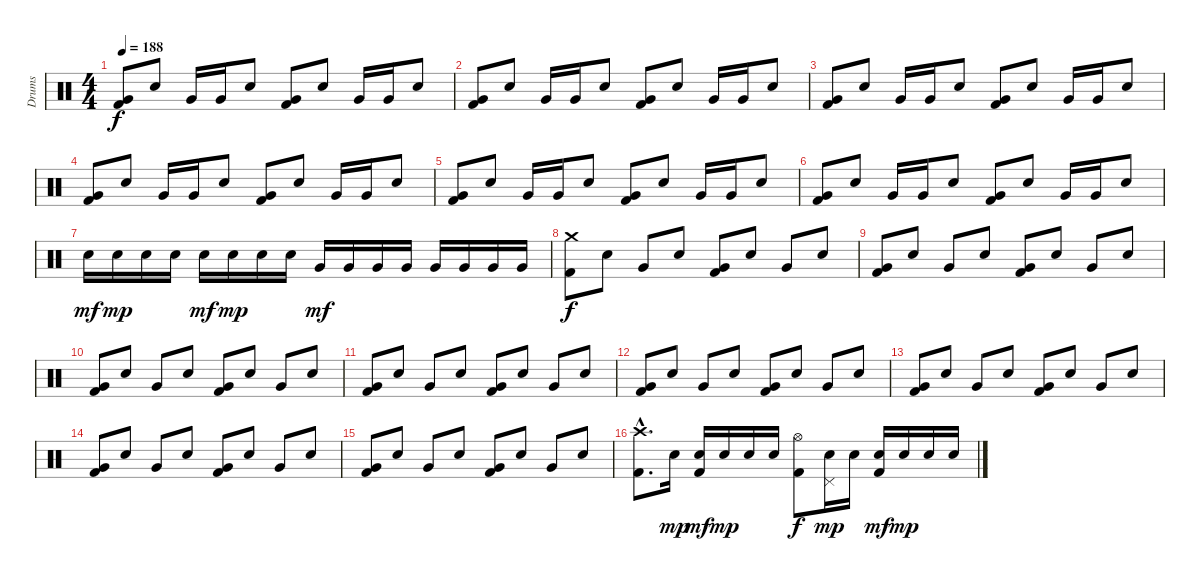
\track ("Drums" "Drums") {instrument percussion}
\staff {score}
\articulation defaults
\ts (4 4)
\tempo 188
\clef neutral
\ks c
("Very Low Tom (hit)" "Kick (hit) 2").8{dy f} "Electric Snare (hit)".8 "Very Low Tom (hit)".16 "Very Low Tom (hit)".16 "Electric Snare (hit)".8 ("Very Low Tom (hit)" "Kick (hit) 2").8 "Electric Snare (hit)".8 "Very Low Tom (hit)".16 "Very Low Tom (hit)".16 "Electric Snare (hit)".8 |
("Very Low Tom (hit)" "Kick (hit) 2").8 "Electric Snare (hit)".8 "Very Low Tom (hit)".16 "Very Low Tom (hit)".16 "Electric Snare (hit)".8 ("Very Low Tom (hit)" "Kick (hit) 2").8 "Electric Snare (hit)".8 "Very Low Tom (hit)".16 "Very Low Tom (hit)".16 "Electric Snare (hit)".8 |
("Very Low Tom (hit)" "Kick (hit) 2").8 "Electric Snare (hit)".8 "Very Low Tom (hit)".16 "Very Low Tom (hit)".16 "Electric Snare (hit)".8 ("Very Low Tom (hit)" "Kick (hit) 2").8 "Electric Snare (hit)".8 "Very Low Tom (hit)".16 "Very Low Tom (hit)".16 "Electric Snare (hit)".8 |
("Very Low Tom (hit)" "Kick (hit) 2").8 "Electric Snare (hit)".8 "Very Low Tom (hit)".16 "Very Low Tom (hit)".16 "Electric Snare (hit)".8 ("Very Low Tom (hit)" "Kick (hit) 2").8 "Electric Snare (hit)".8 "Very Low Tom (hit)".16 "Very Low Tom (hit)".16 "Electric Snare (hit)".8 |
("Very Low Tom (hit)" "Kick (hit) 2").8 "Electric Snare (hit)".8 "Very Low Tom (hit)".16 "Very Low Tom (hit)".16 "Electric Snare (hit)".8 ("Very Low Tom (hit)" "Kick (hit) 2").8 "Electric Snare (hit)".8 "Very Low Tom (hit)".16 "Very Low Tom (hit)".16 "Electric Snare (hit)".8 |
("Very Low Tom (hit)" "Kick (hit) 2").8 "Electric Snare (hit)".8 "Very Low Tom (hit)".16 "Very Low Tom (hit)".16 "Electric Snare (hit)".8 ("Very Low Tom (hit)" "Kick (hit) 2").8 "Electric Snare (hit)".8 "Very Low Tom (hit)".16 "Very Low Tom (hit)".16 "Electric Snare (hit)".8 |
"Electric Snare (hit)".16{dy mf} "Electric Snare (hit)".16{dy mp} "Electric Snare (hit)".16 "Electric Snare (hit)".16 "Electric Snare (hit)".16{dy mf} "Electric Snare (hit)".16{dy mp} "Electric Snare (hit)".16 "Electric Snare (hit)".16 "Very Low Tom (hit)".16{dy mf} "Very Low Tom (hit)".16 "Very Low Tom (hit)".16 "Very Low Tom (hit)".16 "Very Low Tom (hit)".16 "Very Low Tom (hit)".16 "Very Low Tom (hit)".16 "Very Low Tom (hit)".16 |
("Crash medium (hit)" "Kick (hit) 2").8{dy f} "Electric Snare (hit)".8 "Very Low Tom (hit)".8 "Electric Snare (hit)".8 ("Very Low Tom (hit)" "Kick (hit) 2").8 "Electric Snare (hit)".8 "Very Low Tom (hit)".8 "Electric Snare (hit)".8 |
("Very Low Tom (hit)" "Kick (hit) 2").8 "Electric Snare (hit)".8 "Very Low Tom (hit)".8 "Electric Snare (hit)".8 ("Very Low Tom (hit)" "Kick (hit) 2").8 "Electric Snare (hit)".8 "Very Low Tom (hit)".8 "Electric Snare (hit)".8 |
("Very Low Tom (hit)" "Kick (hit) 2").8 "Electric Snare (hit)".8 "Very Low Tom (hit)".8 "Electric Snare (hit)".8 ("Very Low Tom (hit)" "Kick (hit) 2").8 "Electric Snare (hit)".8 "Very Low Tom (hit)".8 "Electric Snare (hit)".8 |
("Very Low Tom (hit)" "Kick (hit) 2").8 "Electric Snare (hit)".8 "Very Low Tom (hit)".8 "Electric Snare (hit)".8 ("Very Low Tom (hit)" "Kick (hit) 2").8 "Electric Snare (hit)".8 "Very Low Tom (hit)".8 "Electric Snare (hit)".8 |
("Very Low Tom (hit)" "Kick (hit) 2").8 "Electric Snare (hit)".8 "Very Low Tom (hit)".8 "Electric Snare (hit)".8 ("Very Low Tom (hit)" "Kick (hit) 2").8 "Electric Snare (hit)".8 "Very Low Tom (hit)".8 "Electric Snare (hit)".8 |
("Very Low Tom (hit)" "Kick (hit) 2").8 "Electric Snare (hit)".8 "Very Low Tom (hit)".8 "Electric Snare (hit)".8 ("Very Low Tom (hit)" "Kick (hit) 2").8 "Electric Snare (hit)".8 "Very Low Tom (hit)".8 "Electric Snare (hit)".8 |
("Very Low Tom (hit)" "Kick (hit) 2").8 "Electric Snare (hit)".8 "Very Low Tom (hit)".8 "Electric Snare (hit)".8 ("Very Low Tom (hit)" "Kick (hit) 2").8 "Electric Snare (hit)".8 "Very Low Tom (hit)".8 "Electric Snare (hit)".8 |
("Very Low Tom (hit)" "Kick (hit) 2").8 "Electric Snare (hit)".8 "Very Low Tom (hit)".8 "Electric Snare (hit)".8 ("Very Low Tom (hit)" "Kick (hit) 2").8 "Electric Snare (hit)".8 "Very Low Tom (hit)".8 "Electric Snare (hit)".8 |
("Crash high (hit)"{hac} "Kick (hit) 2"{hac}).8{d} "Electric Snare (hit)".16{dy mp} ("Electric Snare (hit)" "Kick (hit) 2").16{dy mf} "Electric Snare (hit)".16{dy mp} "Electric Snare (hit)".16 "Electric Snare (hit)".16 ("Hi-Hat (open)" "Kick (hit) 2").8{dy f} ("Pedal Hi-Hat (hit)" "Electric Snare (hit)").16{dy mp} "Electric Snare (hit)".16 ("Electric Snare (hit)" "Kick (hit) 2").16{dy mf} "Electric Snare (hit)".16{dy mp} "Electric Snare (hit)".16 "Electric Snare (hit)".16
